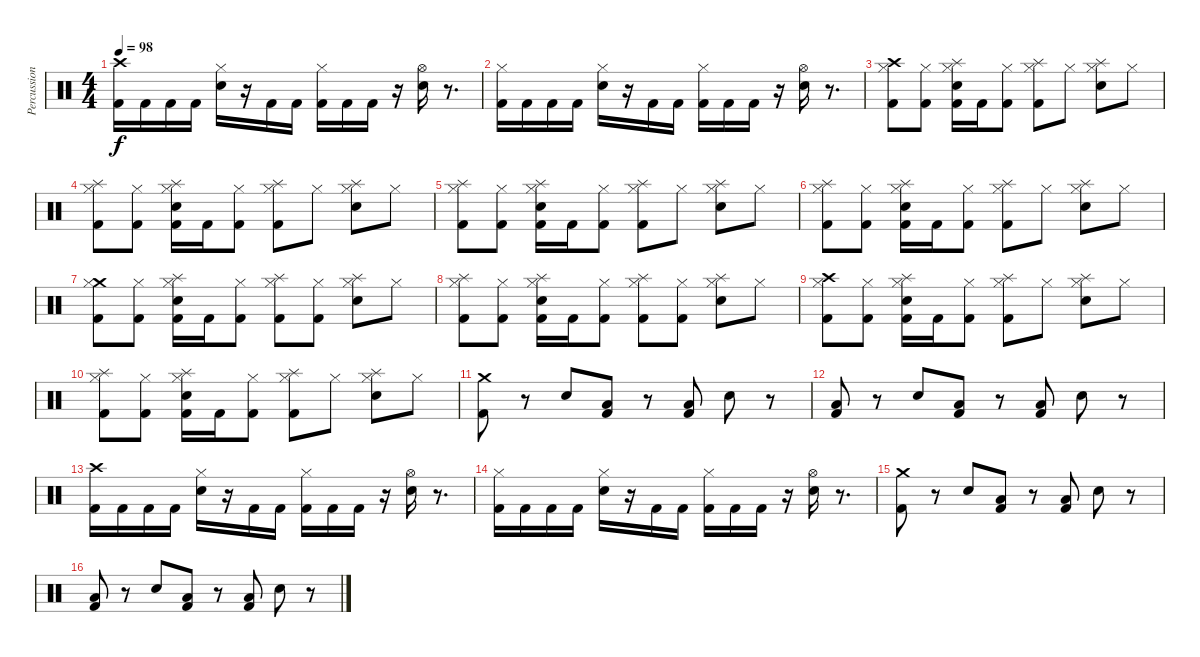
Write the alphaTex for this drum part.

\track ("Percussion" "Percussion") {instrument percussion}
\staff {score}
\articulation defaults
\ts (4 4)
\tempo 98
\clef neutral
\ks c
("Crash high (hit)" "Kick (hit) 2").16{dy f} "Kick (hit) 2".16 "Kick (hit) 2".16 "Kick (hit) 2".16 ("Hi-Hat (closed)" "Electric Snare (hit)").16 r.16 "Kick (hit) 2".16 "Kick (hit) 2".16 ("Hi-Hat (closed)" "Kick (hit) 2").16 "Kick (hit) 2".16 "Kick (hit) 2".16 r.16 ("Hi-Hat (open)" "Electric Snare (hit)").16 r.8{d} |
("Hi-Hat (closed)" "Kick (hit) 2").16 "Kick (hit) 2".16 "Kick (hit) 2".16 "Kick (hit) 2".16 ("Hi-Hat (closed)" "Electric Snare (hit)").16 r.16 "Kick (hit) 2".16 "Kick (hit) 2".16 ("Hi-Hat (closed)" "Kick (hit) 2").16 "Kick (hit) 2".16 "Kick (hit) 2".16 r.16 ("Hi-Hat (open)" "Electric Snare (hit)").16 r.8{d} |
("Crash high (hit)" "Hi-Hat (closed)" "Kick (hit) 2").8 ("Hi-Hat (closed)" "Kick (hit) 2").8 ("Splash (hit)" "Hi-Hat (closed)" "Electric Snare (hit)" "Kick (hit) 2").16 "Kick (hit) 2".16 ("Hi-Hat (closed)" "Kick (hit) 2").8 ("Splash (hit)" "Hi-Hat (closed)" "Kick (hit) 2").8 "Hi-Hat (closed)".8 ("Splash (hit)" "Hi-Hat (closed)" "Electric Snare (hit)").8 "Hi-Hat (closed)".8 |
("Splash (hit)" "Hi-Hat (closed)" "Kick (hit) 2").8 ("Hi-Hat (closed)" "Kick (hit) 2").8 ("Splash (hit)" "Hi-Hat (closed)" "Electric Snare (hit)" "Kick (hit) 2").16 "Kick (hit) 2".16 ("Hi-Hat (closed)" "Kick (hit) 2").8 ("Splash (hit)" "Hi-Hat (closed)" "Kick (hit) 2").8 "Hi-Hat (closed)".8 ("Splash (hit)" "Hi-Hat (closed)" "Electric Snare (hit)").8 "Hi-Hat (closed)".8 |
("Splash (hit)" "Hi-Hat (closed)" "Kick (hit) 2").8 ("Hi-Hat (closed)" "Kick (hit) 2").8 ("Splash (hit)" "Hi-Hat (closed)" "Electric Snare (hit)" "Kick (hit) 2").16 "Kick (hit) 2".16 ("Hi-Hat (closed)" "Kick (hit) 2").8 ("Splash (hit)" "Hi-Hat (closed)" "Kick (hit) 2").8 "Hi-Hat (closed)".8 ("Splash (hit)" "Hi-Hat (closed)" "Electric Snare (hit)").8 "Hi-Hat (closed)".8 |
("Splash (hit)" "Hi-Hat (closed)" "Kick (hit) 2").8 ("Hi-Hat (closed)" "Kick (hit) 2").8 ("Splash (hit)" "Hi-Hat (closed)" "Electric Snare (hit)" "Kick (hit) 2").16 "Kick (hit) 2".16 ("Hi-Hat (closed)" "Kick (hit) 2").8 ("Splash (hit)" "Hi-Hat (closed)" "Kick (hit) 2").8 "Hi-Hat (closed)".8 ("Splash (hit)" "Hi-Hat (closed)" "Electric Snare (hit)").8 "Hi-Hat (closed)".8 |
("Crash medium (hit)" "Hi-Hat (closed)" "Kick (hit) 2").8 ("Hi-Hat (closed)" "Kick (hit) 2").8 ("Splash (hit)" "Hi-Hat (closed)" "Electric Snare (hit)" "Kick (hit) 2").16 "Kick (hit) 2".16 ("Hi-Hat (closed)" "Kick (hit) 2").8 ("Splash (hit)" "Hi-Hat (closed)" "Kick (hit) 2").8 ("Hi-Hat (closed)" "Kick (hit) 2").8 ("Splash (hit)" "Hi-Hat (closed)" "Electric Snare (hit)").8 "Hi-Hat (closed)".8 |
("Splash (hit)" "Hi-Hat (closed)" "Kick (hit) 2").8 ("Hi-Hat (closed)" "Kick (hit) 2").8 ("Splash (hit)" "Hi-Hat (closed)" "Electric Snare (hit)" "Kick (hit) 2").16 "Kick (hit) 2".16 ("Hi-Hat (closed)" "Kick (hit) 2").8 ("Splash (hit)" "Hi-Hat (closed)" "Kick (hit) 2").8 ("Hi-Hat (closed)" "Kick (hit) 2").8 ("Splash (hit)" "Hi-Hat (closed)" "Electric Snare (hit)").8 "Hi-Hat (closed)".8 |
("Crash high (hit)" "Hi-Hat (closed)" "Kick (hit) 2").8 ("Hi-Hat (closed)" "Kick (hit) 2").8 ("Splash (hit)" "Hi-Hat (closed)" "Electric Snare (hit)" "Kick (hit) 2").16 "Kick (hit) 2".16 ("Hi-Hat (closed)" "Kick (hit) 2").8 ("Splash (hit)" "Hi-Hat (closed)" "Kick (hit) 2").8 "Hi-Hat (closed)".8 ("Splash (hit)" "Hi-Hat (closed)" "Electric Snare (hit)").8 "Hi-Hat (closed)".8 |
("Splash (hit)" "Hi-Hat (closed)" "Kick (hit) 2").8 ("Hi-Hat (closed)" "Kick (hit) 2").8 ("Splash (hit)" "Hi-Hat (closed)" "Electric Snare (hit)" "Kick (hit) 2").16 "Kick (hit) 2".16 ("Hi-Hat (closed)" "Kick (hit) 2").8 ("Splash (hit)" "Hi-Hat (closed)" "Kick (hit) 2").8 "Hi-Hat (closed)".8 ("Splash (hit)" "Hi-Hat (closed)" "Electric Snare (hit)").8 "Hi-Hat (closed)".8 |
("Crash medium (hit)" "Kick (hit) 2").8 r.8 "Electric Snare (hit)".8 ("Low Floor Tom (hit)" "Kick (hit) 2").8 r.8 ("Low Floor Tom (hit)" "Kick (hit) 2").8 "Electric Snare (hit)".8 r.8 |
("Low Floor Tom (hit)" "Kick (hit) 2").8 r.8 "Electric Snare (hit)".8 ("Low Floor Tom (hit)" "Kick (hit) 2").8 r.8 ("Low Floor Tom (hit)" "Kick (hit) 2").8 "Electric Snare (hit)".8 r.8 |
("Crash high (hit)" "Kick (hit) 2").16 "Kick (hit) 2".16 "Kick (hit) 2".16 "Kick (hit) 2".16 ("Hi-Hat (closed)" "Electric Snare (hit)").16 r.16 "Kick (hit) 2".16 "Kick (hit) 2".16 ("Hi-Hat (closed)" "Kick (hit) 2").16 "Kick (hit) 2".16 "Kick (hit) 2".16 r.16 ("Hi-Hat (open)" "Electric Snare (hit)").16 r.8{d} |
("Hi-Hat (closed)" "Kick (hit) 2").16 "Kick (hit) 2".16 "Kick (hit) 2".16 "Kick (hit) 2".16 ("Hi-Hat (closed)" "Electric Snare (hit)").16 r.16 "Kick (hit) 2".16 "Kick (hit) 2".16 ("Hi-Hat (closed)" "Kick (hit) 2").16 "Kick (hit) 2".16 "Kick (hit) 2".16 r.16 ("Hi-Hat (open)" "Electric Snare (hit)").16 r.8{d} |
("Crash medium (hit)" "Kick (hit) 2").8 r.8 "Electric Snare (hit)".8 ("Low Floor Tom (hit)" "Kick (hit) 2").8 r.8 ("Low Floor Tom (hit)" "Kick (hit) 2").8 "Electric Snare (hit)".8 r.8 |
("Low Floor Tom (hit)" "Kick (hit) 2").8 r.8 "Electric Snare (hit)".8 ("Low Floor Tom (hit)" "Kick (hit) 2").8 r.8 ("Low Floor Tom (hit)" "Kick (hit) 2").8 "Electric Snare (hit)".8 r.8
